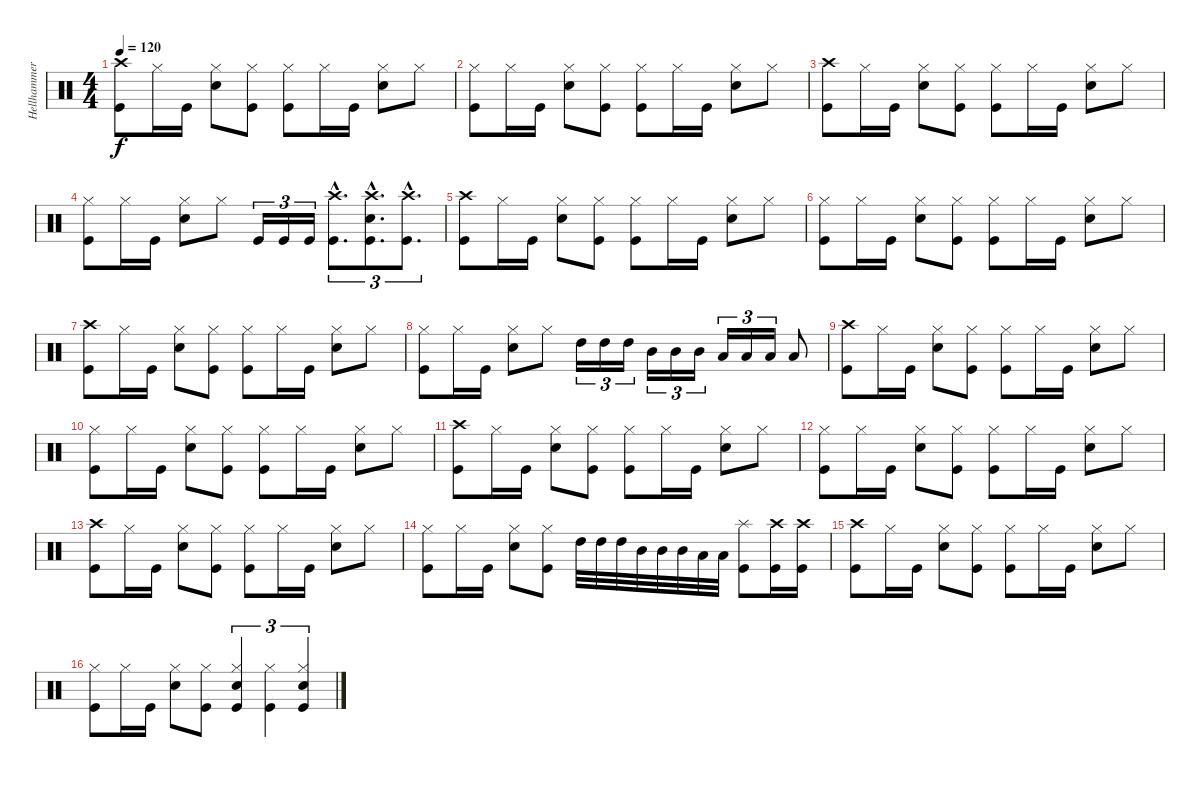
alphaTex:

\track ("Hellhammer" "Hellhammer") {instrument percussion}
\staff {score}
\articulation defaults
\ts (4 4)
\tempo 120
\clef neutral
\ks c
("Crash high (hit)" "Kick (hit)").8{dy f} "Hi-Hat (closed)".16 "Kick (hit)".16 ("Hi-Hat (closed)" "Electric Snare (hit)").8 ("Hi-Hat (closed)" "Kick (hit)").8 ("Hi-Hat (closed)" "Kick (hit)").8 "Hi-Hat (closed)".16 "Kick (hit)".16 ("Hi-Hat (closed)" "Electric Snare (hit)").8 "Hi-Hat (closed)".8 |
("Hi-Hat (closed)" "Kick (hit)").8 "Hi-Hat (closed)".16 "Kick (hit)".16 ("Hi-Hat (closed)" "Electric Snare (hit)").8 ("Hi-Hat (closed)" "Kick (hit)").8 ("Hi-Hat (closed)" "Kick (hit)").8 "Hi-Hat (closed)".16 "Kick (hit)".16 ("Hi-Hat (closed)" "Electric Snare (hit)").8 "Hi-Hat (closed)".8 |
("Crash high (hit)" "Kick (hit)").8 "Hi-Hat (closed)".16 "Kick (hit)".16 ("Hi-Hat (closed)" "Electric Snare (hit)").8 ("Hi-Hat (closed)" "Kick (hit)").8 ("Hi-Hat (closed)" "Kick (hit)").8 "Hi-Hat (closed)".16 "Kick (hit)".16 ("Hi-Hat (closed)" "Electric Snare (hit)").8 "Hi-Hat (closed)".8 |
("Hi-Hat (closed)" "Kick (hit)").8 "Hi-Hat (closed)".16 "Kick (hit)".16 ("Hi-Hat (closed)" "Electric Snare (hit)").8 "Hi-Hat (closed)".8 "Kick (hit)".16{tu (3 2)} "Kick (hit)".16{tu (3 2)} "Kick (hit)".16{tu (3 2)} ("Crash high (hit)"{hac} "Kick (hit)"{hac}).8{d tu (3 2)} ("Crash high (hit)"{hac} "Electric Snare (hit)"{hac} "Kick (hit)"{hac}).8{d tu (3 2)} ("Crash high (hit)"{hac} "Kick (hit)"{hac}).8{d tu (3 2)} |
("Crash high (hit)" "Kick (hit)").8 "Hi-Hat (closed)".16 "Kick (hit)".16 ("Hi-Hat (closed)" "Electric Snare (hit)").8 ("Hi-Hat (closed)" "Kick (hit)").8 ("Hi-Hat (closed)" "Kick (hit)").8 "Hi-Hat (closed)".16 "Kick (hit)".16 ("Hi-Hat (closed)" "Electric Snare (hit)").8 "Hi-Hat (closed)".8 |
("Hi-Hat (closed)" "Kick (hit)").8 "Hi-Hat (closed)".16 "Kick (hit)".16 ("Hi-Hat (closed)" "Electric Snare (hit)").8 ("Hi-Hat (closed)" "Kick (hit)").8 ("Hi-Hat (closed)" "Kick (hit)").8 "Hi-Hat (closed)".16 "Kick (hit)".16 ("Hi-Hat (closed)" "Electric Snare (hit)").8 "Hi-Hat (closed)".8 |
("Crash high (hit)" "Kick (hit)").8 "Hi-Hat (closed)".16 "Kick (hit)".16 ("Hi-Hat (closed)" "Electric Snare (hit)").8 ("Hi-Hat (closed)" "Kick (hit)").8 ("Hi-Hat (closed)" "Kick (hit)").8 "Hi-Hat (closed)".16 "Kick (hit)".16 ("Hi-Hat (closed)" "Electric Snare (hit)").8 "Hi-Hat (closed)".8 |
("Hi-Hat (closed)" "Kick (hit)").8 "Hi-Hat (closed)".16 "Kick (hit)".16 ("Hi-Hat (closed)" "Electric Snare (hit)").8 "Hi-Hat (closed)".8 "High Tom (hit)".16{tu (3 2)} "High Tom (hit)".16{tu (3 2)} "High Tom (hit)".16{tu (3 2)} "Mid Tom (hit)".16{tu (3 2)} "Mid Tom (hit)".16{tu (3 2)} "Mid Tom (hit)".16{tu (3 2)} "Low Tom (hit)".16{tu (3 2)} "Low Tom (hit)".16{tu (3 2)} "Low Tom (hit)".16{tu (3 2)} "Low Tom (hit)".8 |
("Crash high (hit)" "Kick (hit)").8 "Hi-Hat (closed)".16 "Kick (hit)".16 ("Hi-Hat (closed)" "Electric Snare (hit)").8 ("Hi-Hat (closed)" "Kick (hit)").8 ("Hi-Hat (closed)" "Kick (hit)").8 "Hi-Hat (closed)".16 "Kick (hit)".16 ("Hi-Hat (closed)" "Electric Snare (hit)").8 "Hi-Hat (closed)".8 |
("Hi-Hat (closed)" "Kick (hit)").8 "Hi-Hat (closed)".16 "Kick (hit)".16 ("Hi-Hat (closed)" "Electric Snare (hit)").8 ("Hi-Hat (closed)" "Kick (hit)").8 ("Hi-Hat (closed)" "Kick (hit)").8 "Hi-Hat (closed)".16 "Kick (hit)".16 ("Hi-Hat (closed)" "Electric Snare (hit)").8 "Hi-Hat (closed)".8 |
("Crash high (hit)" "Kick (hit)").8 "Hi-Hat (closed)".16 "Kick (hit)".16 ("Hi-Hat (closed)" "Electric Snare (hit)").8 ("Hi-Hat (closed)" "Kick (hit)").8 ("Hi-Hat (closed)" "Kick (hit)").8 "Hi-Hat (closed)".16 "Kick (hit)".16 ("Hi-Hat (closed)" "Electric Snare (hit)").8 "Hi-Hat (closed)".8 |
("Hi-Hat (closed)" "Kick (hit)").8 "Hi-Hat (closed)".16 "Kick (hit)".16 ("Hi-Hat (closed)" "Electric Snare (hit)").8 ("Hi-Hat (closed)" "Kick (hit)").8 ("Hi-Hat (closed)" "Kick (hit)").8 "Hi-Hat (closed)".16 "Kick (hit)".16 ("Hi-Hat (closed)" "Electric Snare (hit)").8 "Hi-Hat (closed)".8 |
("Crash high (hit)" "Kick (hit)").8 "Hi-Hat (closed)".16 "Kick (hit)".16 ("Hi-Hat (closed)" "Electric Snare (hit)").8 ("Hi-Hat (closed)" "Kick (hit)").8 ("Hi-Hat (closed)" "Kick (hit)").8 "Hi-Hat (closed)".16 "Kick (hit)".16 ("Hi-Hat (closed)" "Electric Snare (hit)").8 "Hi-Hat (closed)".8 |
("Hi-Hat (closed)" "Kick (hit)").8 "Hi-Hat (closed)".16 "Kick (hit)".16 ("Hi-Hat (closed)" "Electric Snare (hit)").8 ("Hi-Hat (closed)" "Kick (hit)").8 "High Tom (hit)".32 "High Tom (hit)".32 "High Tom (hit)".32 "Mid Tom (hit)".32 "Mid Tom (hit)".32 "Mid Tom (hit)".32 "Low Tom (hit)".32 "Low Tom (hit)".32 ("Splash (hit)" "Kick (hit)").8 ("Crash high (hit)" "Kick (hit)").16 ("Crash high (hit)" "Kick (hit)").16 |
("Crash high (hit)" "Kick (hit)").8 "Hi-Hat (closed)".16 "Kick (hit)".16 ("Hi-Hat (closed)" "Electric Snare (hit)").8 ("Hi-Hat (closed)" "Kick (hit)").8 ("Hi-Hat (closed)" "Kick (hit)").8 "Hi-Hat (closed)".16 "Kick (hit)".16 ("Hi-Hat (closed)" "Electric Snare (hit)").8 "Hi-Hat (closed)".8 |
("Hi-Hat (closed)" "Kick (hit)").8 "Hi-Hat (closed)".16 "Kick (hit)".16 ("Hi-Hat (closed)" "Electric Snare (hit)").8 ("Hi-Hat (closed)" "Kick (hit)").8 ("Hi-Hat (closed)" "Electric Snare (hit)" "Kick (hit)").4{tu (3 2)} ("Hi-Hat (closed)" "Kick (hit)").4{tu (3 2)} ("Hi-Hat (closed)" "Electric Snare (hit)" "Kick (hit)").4{tu (3 2)}
